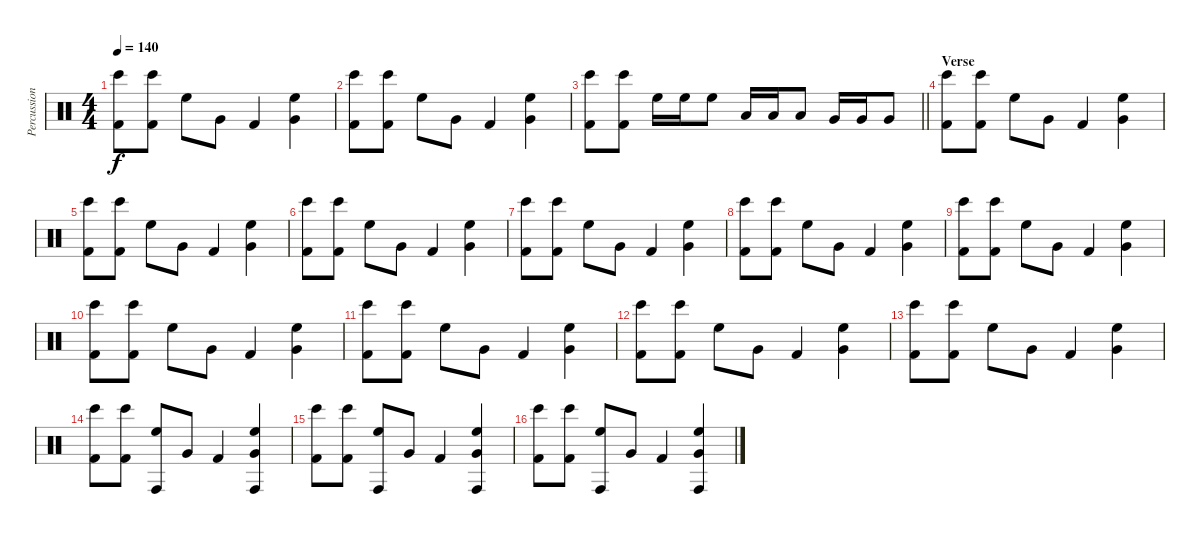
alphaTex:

\track ("Percussion" "Percussion") {instrument percussion}
\staff {score}
\articulation defaults
\ts (4 4)
\tempo 140
\clef neutral
\ks c
("Bongo High (hit)" "Kick (hit) 2").8{dy f} ("Bongo High (hit)" "Kick (hit) 2").8 "High Floor Tom (hit)".8 "Very Low Tom (hit)".8 "Kick (hit) 2".4 ("High Floor Tom (hit)" "Very Low Tom (hit)").4 |
("Bongo High (hit)" "Kick (hit) 2").8 ("Bongo High (hit)" "Kick (hit) 2").8 "High Floor Tom (hit)".8 "Very Low Tom (hit)".8 "Kick (hit) 2".4 ("High Floor Tom (hit)" "Very Low Tom (hit)").4 |
\barLineRight lightlight
("Bongo High (hit)" "Kick (hit) 2").8 ("Bongo High (hit)" "Kick (hit) 2").8 "High Floor Tom (hit)".16 "High Floor Tom (hit)".16 "High Floor Tom (hit)".8 "Low Tom (hit)".16 "Low Tom (hit)".16 "Low Tom (hit)".8 "Very Low Tom (hit)".16 "Very Low Tom (hit)".16 "Very Low Tom (hit)".8 |
\section ("" "Verse")
("Bongo High (hit)" "Kick (hit) 2").8 ("Bongo High (hit)" "Kick (hit) 2").8 "High Floor Tom (hit)".8 "Very Low Tom (hit)".8 "Kick (hit) 2".4 ("High Floor Tom (hit)" "Very Low Tom (hit)").4 |
("Bongo High (hit)" "Kick (hit) 2").8 ("Bongo High (hit)" "Kick (hit) 2").8 "High Floor Tom (hit)".8 "Very Low Tom (hit)".8 "Kick (hit) 2".4 ("High Floor Tom (hit)" "Very Low Tom (hit)").4 |
("Bongo High (hit)" "Kick (hit) 2").8 ("Bongo High (hit)" "Kick (hit) 2").8 "High Floor Tom (hit)".8 "Very Low Tom (hit)".8 "Kick (hit) 2".4 ("High Floor Tom (hit)" "Very Low Tom (hit)").4 |
("Bongo High (hit)" "Kick (hit) 2").8 ("Bongo High (hit)" "Kick (hit) 2").8 "High Floor Tom (hit)".8 "Very Low Tom (hit)".8 "Kick (hit) 2".4 ("High Floor Tom (hit)" "Very Low Tom (hit)").4 |
("Bongo High (hit)" "Kick (hit) 2").8 ("Bongo High (hit)" "Kick (hit) 2").8 "High Floor Tom (hit)".8 "Very Low Tom (hit)".8 "Kick (hit) 2".4 ("High Floor Tom (hit)" "Very Low Tom (hit)").4 |
("Bongo High (hit)" "Kick (hit) 2").8 ("Bongo High (hit)" "Kick (hit) 2").8 "High Floor Tom (hit)".8 "Very Low Tom (hit)".8 "Kick (hit) 2".4 ("High Floor Tom (hit)" "Very Low Tom (hit)").4 |
("Bongo High (hit)" "Kick (hit) 2").8 ("Bongo High (hit)" "Kick (hit) 2").8 "High Floor Tom (hit)".8 "Very Low Tom (hit)".8 "Kick (hit) 2".4 ("High Floor Tom (hit)" "Very Low Tom (hit)").4 |
("Bongo High (hit)" "Kick (hit) 2").8 ("Bongo High (hit)" "Kick (hit) 2").8 "High Floor Tom (hit)".8 "Very Low Tom (hit)".8 "Kick (hit) 2".4 ("High Floor Tom (hit)" "Very Low Tom (hit)").4 |
("Bongo High (hit)" "Kick (hit) 2").8 ("Bongo High (hit)" "Kick (hit) 2").8 "High Floor Tom (hit)".8 "Very Low Tom (hit)".8 "Kick (hit) 2".4 ("High Floor Tom (hit)" "Very Low Tom (hit)").4 |
("Bongo High (hit)" "Kick (hit) 2").8 ("Bongo High (hit)" "Kick (hit) 2").8 "High Floor Tom (hit)".8 "Very Low Tom (hit)".8 "Kick (hit) 2".4 ("High Floor Tom (hit)" "Very Low Tom (hit)").4 |
("Bongo High (hit)" "Kick (hit) 2").8 ("Bongo High (hit)" "Kick (hit) 2").8 ("Conga high (hit)" "High Floor Tom (hit)").8 "Very Low Tom (hit)".8 "Kick (hit) 2".4 ("Conga high (hit)" "High Floor Tom (hit)" "Very Low Tom (hit)").4 |
("Bongo High (hit)" "Kick (hit) 2").8 ("Bongo High (hit)" "Kick (hit) 2").8 ("Conga high (hit)" "High Floor Tom (hit)").8 "Very Low Tom (hit)".8 "Kick (hit) 2".4 ("Conga high (hit)" "High Floor Tom (hit)" "Very Low Tom (hit)").4 |
("Bongo High (hit)" "Kick (hit) 2").8 ("Bongo High (hit)" "Kick (hit) 2").8 ("Conga high (hit)" "High Floor Tom (hit)").8 "Very Low Tom (hit)".8 "Kick (hit) 2".4 ("Conga high (hit)" "High Floor Tom (hit)" "Very Low Tom (hit)").4
